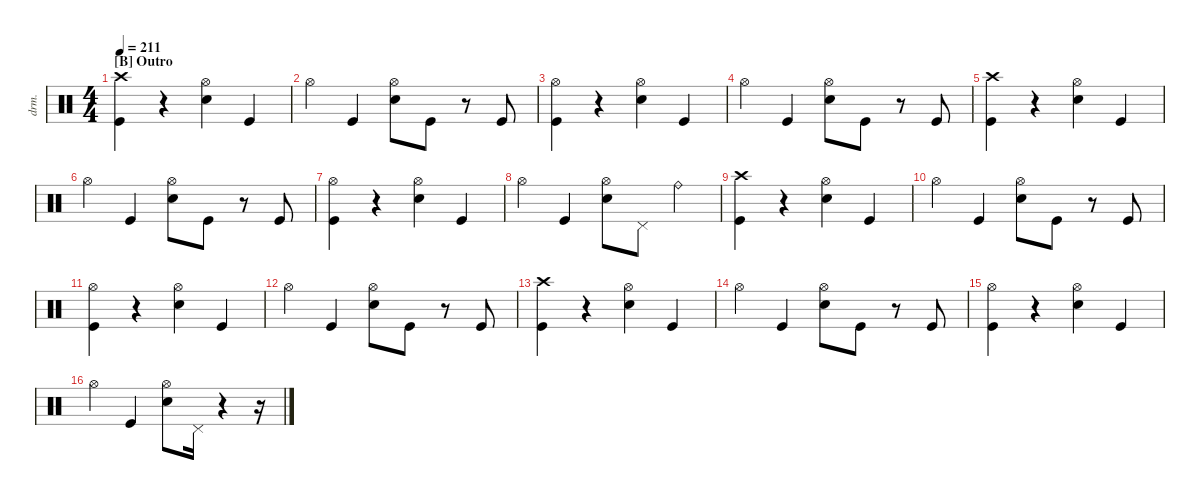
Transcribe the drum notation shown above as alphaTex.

\defaultSystemsLayout 4
\hideDynamics
\bracketExtendMode nobrackets
\track ("Drums" "drm.") {instrument percussion}
\staff {score}
\articulation defaults
\ts (4 4)
\section ("B" "Outro")
\tempo 211
\clef neutral
\ks c
("Kick (hit)" "Crash high (hit)"{acc #}).4{dy ff} r.4 ("Snare (hit) 2" "Hi-Hat (open)"{acc #}).4 "Kick (hit)".4 |
"Hi-Hat (open)"{acc #}.4 "Kick (hit)".4 ("Snare (hit) 2" "Hi-Hat (open)"{acc #}).8 "Kick (hit)".8 r.8 "Kick (hit)".8{dy mf} |
("Kick (hit)" "Hi-Hat (open)"{acc #}).4{dy ff} r.4 ("Snare (hit) 2" "Hi-Hat (open)"{acc #}).4 "Kick (hit)".4 |
"Hi-Hat (open)"{acc #}.4 "Kick (hit)".4 ("Snare (hit) 2" "Hi-Hat (open)"{acc #}).8 "Kick (hit)".8 r.8 "Kick (hit)".8{dy mf} |
("Kick (hit)" "Crash high (hit)"{acc #}).4{dy ff} r.4 ("Snare (hit) 2" "Hi-Hat (open)"{acc #}).4 "Kick (hit)".4 |
"Hi-Hat (open)"{acc #}.4 "Kick (hit)".4 ("Snare (hit) 2" "Hi-Hat (open)"{acc #}).8 "Kick (hit)".8 r.8 "Kick (hit)".8{dy mf} |
("Kick (hit)" "Hi-Hat (open)"{acc #}).4{dy ff} r.4 ("Snare (hit) 2" "Hi-Hat (open)"{acc #}).4 "Kick (hit)".4 |
"Hi-Hat (open)"{acc #}.4 "Kick (hit)".4{dy f} ("Snare (hit) 2" "Hi-Hat (open)"{acc #}).8{dy ff} "Pedal Hi-Hat (hit)"{acc #}.8 "Ride (bell)".4{dy fff} |
("Kick (hit)" "Crash high (hit)"{acc #}).4{dy ff} r.4 ("Snare (hit) 2" "Hi-Hat (open)"{acc #}).4 "Kick (hit)".4 |
"Hi-Hat (open)"{acc #}.4 "Kick (hit)".4 ("Snare (hit) 2" "Hi-Hat (open)"{acc #}).8 "Kick (hit)".8 r.8 "Kick (hit)".8{dy mf} |
("Kick (hit)" "Hi-Hat (open)"{acc #}).4{dy ff} r.4 ("Snare (hit) 2" "Hi-Hat (open)"{acc #}).4 "Kick (hit)".4 |
"Hi-Hat (open)"{acc #}.4 "Kick (hit)".4 ("Snare (hit) 2" "Hi-Hat (open)"{acc #}).8 "Kick (hit)".8 r.8 "Kick (hit)".8{dy mf} |
("Kick (hit)" "Crash high (hit)"{acc #}).4{dy ff} r.4 ("Snare (hit) 2" "Hi-Hat (open)"{acc #}).4 "Kick (hit)".4 |
"Hi-Hat (open)"{acc #}.4 "Kick (hit)".4 ("Snare (hit) 2" "Hi-Hat (open)"{acc #}).8 "Kick (hit)".8 r.8 "Kick (hit)".8{dy mf} |
("Kick (hit)" "Hi-Hat (open)"{acc #}).4{dy ff} r.4 ("Snare (hit) 2" "Hi-Hat (open)"{acc #}).4 "Kick (hit)".4 |
"Hi-Hat (open)"{acc #}.4 "Kick (hit)".4 ("Snare (hit) 2" "Hi-Hat (open)"{acc #}).8 "Pedal Hi-Hat (hit)"{acc #}.16 r.4 r.16
